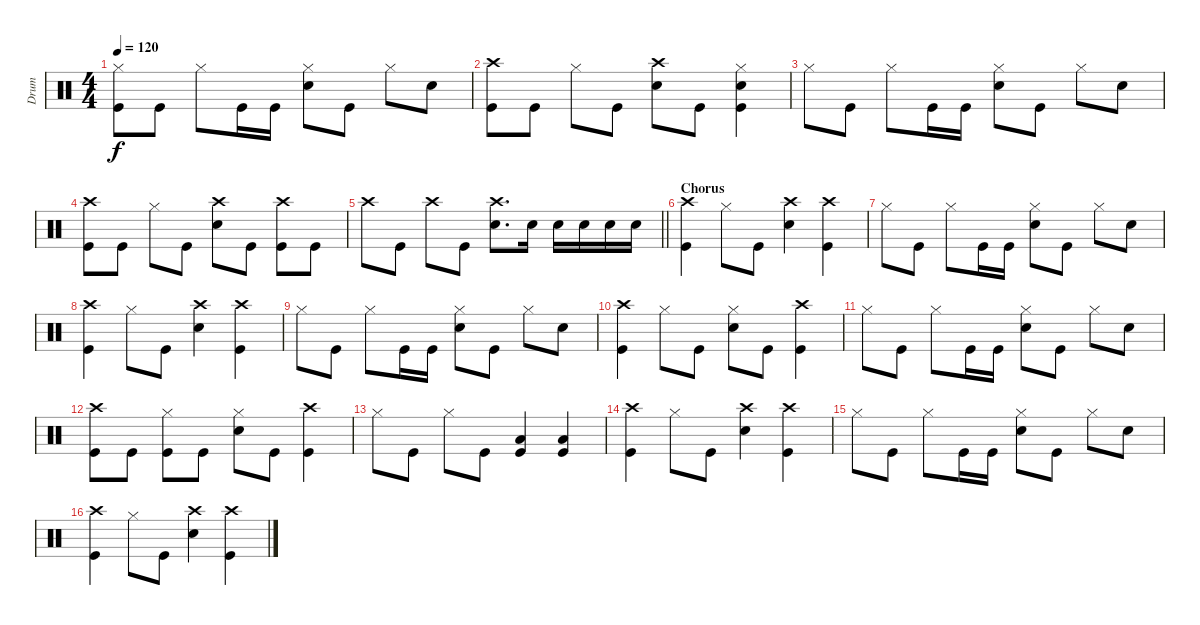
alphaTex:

\track ("Drum" "Drum") {instrument percussion}
\staff {score}
\articulation defaults
\ts (4 4)
\tempo 120
\clef neutral
\ks c
("Hi-Hat (closed)" "Kick (hit)").8{dy f} "Kick (hit)".8 "Hi-Hat (closed)".8 "Kick (hit)".16 "Kick (hit)".16 ("Hi-Hat (closed)" "Snare (hit) 2").8 "Kick (hit)".8 "Hi-Hat (closed)".8 "Snare (hit) 2".8 |
("Crash high (hit)" "Kick (hit)").8 "Kick (hit)".8 "Hi-Hat (closed)".8 "Kick (hit)".8 ("Crash high (hit)" "Snare (hit) 2").8 "Kick (hit)".8 ("Hi-Hat (closed)" "Snare (hit) 2" "Kick (hit)").4 |
"Hi-Hat (closed)".8 "Kick (hit)".8 "Hi-Hat (closed)".8 "Kick (hit)".16 "Kick (hit)".16 ("Hi-Hat (closed)" "Snare (hit) 2").8 "Kick (hit)".8 "Hi-Hat (closed)".8 "Snare (hit) 2".8 |
("Crash high (hit)" "Kick (hit)").8 "Kick (hit)".8 "Hi-Hat (closed)".8 "Kick (hit)".8 ("Crash high (hit)" "Snare (hit) 2").8 "Kick (hit)".8 ("Crash high (hit)" "Kick (hit)").8 "Kick (hit)".8 |
\barLineRight lightlight "Crash high (hit)".8 "Kick (hit)".8 "Crash high (hit)".8 "Kick (hit)".8
("Crash high (hit)" "Snare (hit) 2").8{d} "Snare (hit) 2".16 "Snare (hit) 2".16 "Snare (hit) 2".16 "Snare (hit) 2".16 "Snare (hit) 2".16 |
\section ("" "Chorus")
("Crash high (hit)" "Kick (hit)").4 "Hi-Hat (closed)".8 "Kick (hit)".8 ("Crash high (hit)" "Snare (hit) 2").4 ("Crash high (hit)" "Kick (hit)").4 |
"Hi-Hat (closed)".8 "Kick (hit)".8 "Hi-Hat (closed)".8 "Kick (hit)".16 "Kick (hit)".16 ("Hi-Hat (closed)" "Snare (hit) 2").8 "Kick (hit)".8 "Hi-Hat (closed)".8 "Snare (hit) 2".8 |
("Crash high (hit)" "Kick (hit)").4 "Hi-Hat (closed)".8 "Kick (hit)".8 ("Crash high (hit)" "Snare (hit) 2").4 ("Crash high (hit)" "Kick (hit)").4 |
"Hi-Hat (closed)".8 "Kick (hit)".8 "Hi-Hat (closed)".8 "Kick (hit)".16 "Kick (hit)".16 ("Hi-Hat (closed)" "Snare (hit) 2").8 "Kick (hit)".8 "Hi-Hat (closed)".8 "Snare (hit) 2".8 |
("Crash high (hit)" "Kick (hit)").4 "Hi-Hat (closed)".8 "Kick (hit)".8 ("Hi-Hat (closed)" "Snare (hit) 2").8 "Kick (hit)".8 ("Crash high (hit)" "Kick (hit)").4 |
"Hi-Hat (closed)".8 "Kick (hit)".8 "Hi-Hat (closed)".8 "Kick (hit)".16 "Kick (hit)".16 ("Hi-Hat (closed)" "Snare (hit) 2").8 "Kick (hit)".8 "Hi-Hat (closed)".8 "Snare (hit) 2".8 |
("Crash high (hit)" "Kick (hit)").8 "Kick (hit)".8 ("Hi-Hat (closed)" "Kick (hit)").8 "Kick (hit)".8 ("Hi-Hat (closed)" "Snare (hit) 2").8 "Kick (hit)".8 ("Crash high (hit)" "Kick (hit)").4 |
"Hi-Hat (closed)".8 "Kick (hit)".8 "Hi-Hat (closed)".8 "Kick (hit)".8 ("Low Floor Tom (hit)" "Kick (hit)").4 ("Low Floor Tom (hit)" "Kick (hit)").4 |
("Crash high (hit)" "Kick (hit)").4 "Hi-Hat (closed)".8 "Kick (hit)".8 ("Crash high (hit)" "Snare (hit) 2").4 ("Crash high (hit)" "Kick (hit)").4 |
"Hi-Hat (closed)".8 "Kick (hit)".8 "Hi-Hat (closed)".8 "Kick (hit)".16 "Kick (hit)".16 ("Hi-Hat (closed)" "Snare (hit) 2").8 "Kick (hit)".8 "Hi-Hat (closed)".8 "Snare (hit) 2".8 |
("Crash high (hit)" "Kick (hit)").4 "Hi-Hat (closed)".8 "Kick (hit)".8 ("Crash high (hit)" "Snare (hit) 2").4 ("Crash high (hit)" "Kick (hit)").4
